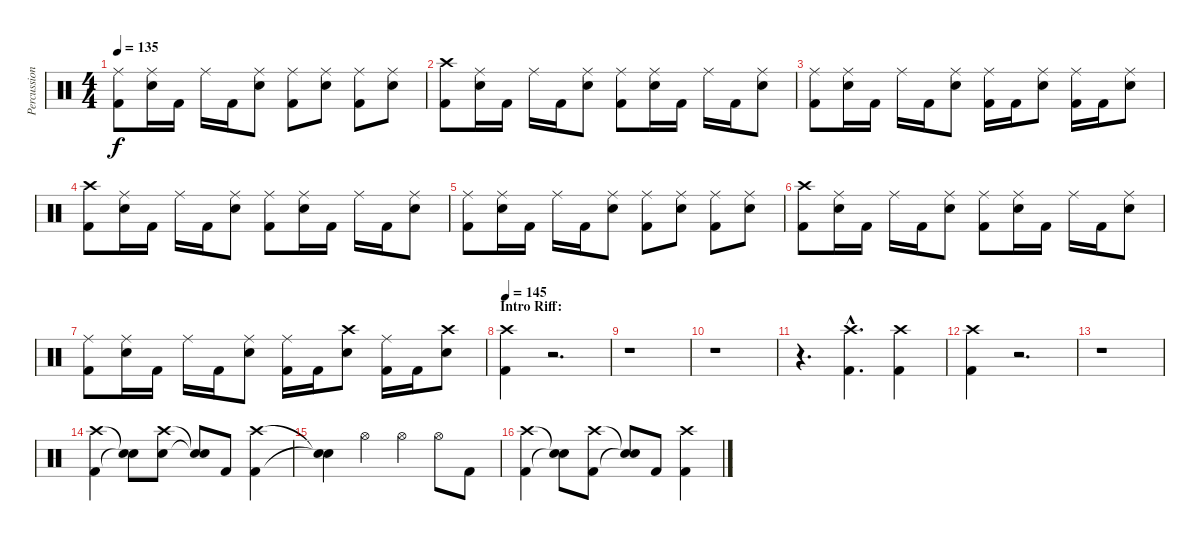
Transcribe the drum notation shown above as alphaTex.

\track ("Percussion" "Percussion") {instrument percussion}
\staff {score}
\articulation defaults
\ts (4 4)
\tempo 135
\clef neutral
\ks c
("Ride (middle)" "Kick (hit) 2").8{dy f} ("Ride (middle)" "Electric Snare (hit)").16 "Kick (hit) 2".16 "Ride (middle)".16 "Kick (hit) 2".16 ("Ride (middle)" "Electric Snare (hit)").8 ("Ride (middle)" "Kick (hit) 2").8 ("Ride (middle)" "Electric Snare (hit)").8 ("Ride (middle)" "Kick (hit) 2").8 ("Ride (middle)" "Electric Snare (hit)").8 |
("Crash high (hit)" "Kick (hit) 2").8 ("Ride (middle)" "Electric Snare (hit)").16 "Kick (hit) 2".16 "Ride (middle)".16 "Kick (hit) 2".16 ("Ride (middle)" "Electric Snare (hit)").8 ("Ride (middle)" "Kick (hit) 2").8 ("Ride (middle)" "Electric Snare (hit)").16 "Kick (hit) 2".16 "Ride (middle)".16 "Kick (hit) 2".16 ("Ride (middle)" "Electric Snare (hit)").8 |
("Ride (middle)" "Kick (hit) 2").8 ("Ride (middle)" "Electric Snare (hit)").16 "Kick (hit) 2".16 "Ride (middle)".16 "Kick (hit) 2".16 ("Ride (middle)" "Electric Snare (hit)").8 ("Ride (middle)" "Kick (hit) 2").16 "Kick (hit) 2".16 ("Ride (middle)" "Electric Snare (hit)").8 ("Ride (middle)" "Kick (hit) 2").16 "Kick (hit) 2".16 ("Ride (middle)" "Electric Snare (hit)").8 |
("Crash high (hit)" "Kick (hit) 2").8 ("Ride (middle)" "Electric Snare (hit)").16 "Kick (hit) 2".16 "Ride (middle)".16 "Kick (hit) 2".16 ("Ride (middle)" "Electric Snare (hit)").8 ("Ride (middle)" "Kick (hit) 2").8 ("Ride (middle)" "Electric Snare (hit)").16 "Kick (hit) 2".16 "Ride (middle)".16 "Kick (hit) 2".16 ("Ride (middle)" "Electric Snare (hit)").8 |
("Ride (middle)" "Kick (hit) 2").8 ("Ride (middle)" "Electric Snare (hit)").16 "Kick (hit) 2".16 "Ride (middle)".16 "Kick (hit) 2".16 ("Ride (middle)" "Electric Snare (hit)").8 ("Ride (middle)" "Kick (hit) 2").8 ("Ride (middle)" "Electric Snare (hit)").8 ("Ride (middle)" "Kick (hit) 2").8 ("Ride (middle)" "Electric Snare (hit)").8 |
("Crash high (hit)" "Kick (hit) 2").8 ("Ride (middle)" "Electric Snare (hit)").16 "Kick (hit) 2".16 "Ride (middle)".16 "Kick (hit) 2".16 ("Ride (middle)" "Electric Snare (hit)").8 ("Ride (middle)" "Kick (hit) 2").8 ("Ride (middle)" "Electric Snare (hit)").16 "Kick (hit) 2".16 "Ride (middle)".16 "Kick (hit) 2".16 ("Ride (middle)" "Electric Snare (hit)").8 |
("Ride (middle)" "Kick (hit) 2").8 ("Ride (middle)" "Electric Snare (hit)").16 "Kick (hit) 2".16 "Ride (middle)".16 "Kick (hit) 2".16 ("Ride (middle)" "Electric Snare (hit)").8 ("Ride (middle)" "Kick (hit) 2").16 "Kick (hit) 2".16 ("Crash high (hit)" "Electric Snare (hit)").8 ("Ride (middle)" "Kick (hit) 2").16 "Kick (hit) 2".16 ("Crash high (hit)" "Electric Snare (hit)").8 |
\section ("" "Intro Riff:")
\tempo 145
("Crash high (hit)" "Kick (hit) 2").4 r.2{d} |
r.1 |
r.1 |
r.4{d} ("Crash high (hit)"{hac} "Kick (hit) 2"{hac}).4{d} ("Crash high (hit)" "Kick (hit) 2").4 |
("Crash high (hit)" "Kick (hit) 2").4 r.2{d} |
r.1 |
("Crash high (hit)" "Kick (hit) 2").4 ("Snare (hit)"{t} "Snare (hit)"{t}).8 ("Crash high (hit)" "Electric Snare (hit)").8 ("Snare (hit)"{t} "Snare (hit)"{t}).8 "Kick (hit) 2".8 ("Crash high (hit)" "Kick (hit) 2").4 |
("Snare (hit)"{t} "Snare (hit)"{t}).4 "Hi-Hat (open)".4 "Hi-Hat (open)".4 "Hi-Hat (open)".8 "Kick (hit) 2".8 |
("Crash high (hit)" "Kick (hit) 2").4 ("Snare (hit)"{t} "Snare (hit)"{t}).8 ("Crash high (hit)" "Kick (hit) 2").8 ("Snare (hit)"{t} "Snare (hit)"{t}).8 "Kick (hit) 2".8 ("Crash high (hit)" "Kick (hit) 2").4
